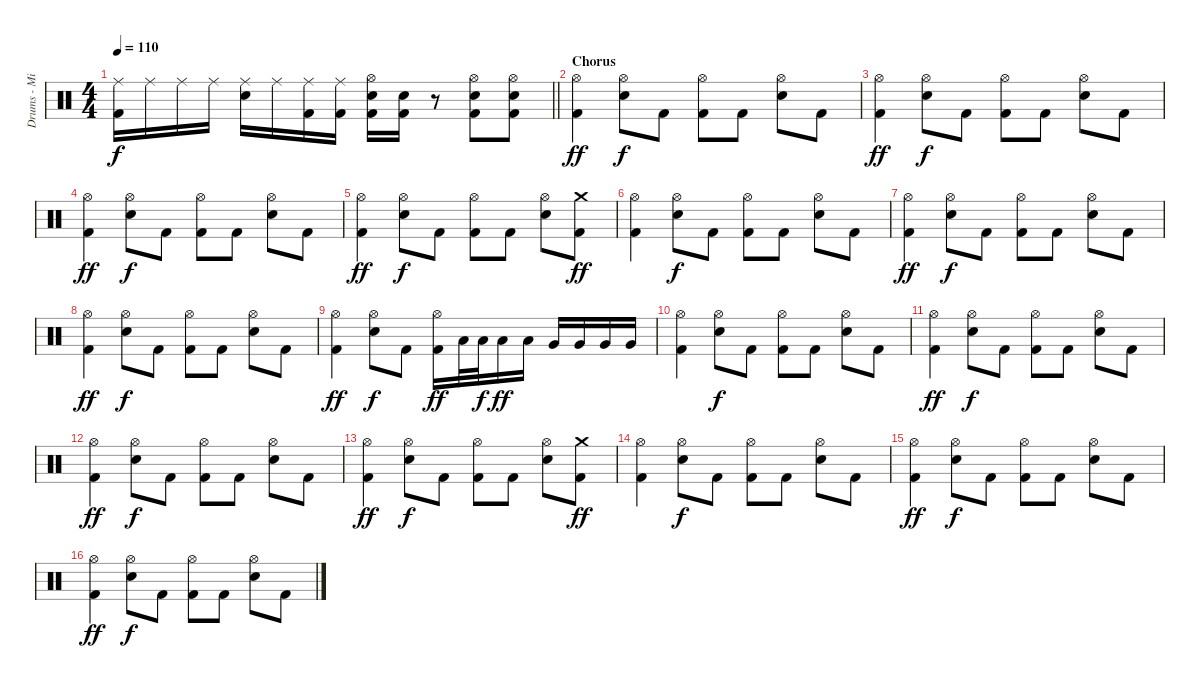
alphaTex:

\track ("Drums - Mikko" "Drums - Mi") {instrument percussion}
\staff {score}
\articulation defaults
\ts (4 4)
\tempo 110
\clef neutral
\barLineRight lightlight
\ks c
("Ride (middle)" "Kick (hit) 2").16{dy f volume 13} "Ride (middle)".16 "Ride (middle)".16 "Ride (middle)".16 ("Ride (middle)" "Snare (hit) 2").16 "Ride (middle)".16 ("Ride (middle)" "Kick (hit) 2").16 ("Ride (middle)" "Kick (hit) 2").16 ("Hi-Hat (open)" "Snare (hit) 2" "Kick (hit) 2").16 ("Snare (hit) 2" "Kick (hit) 2").16 r.8 ("Hi-Hat (open)" "Snare (hit) 2" "Kick (hit) 2").8 ("Hi-Hat (open)" "Snare (hit) 2" "Kick (hit) 2").8 |
\section ("" "Chorus")
("Hi-Hat (open)" "Kick (hit) 2").4{dy ff} ("Hi-Hat (open)" "Snare (hit) 2").8{dy f} "Kick (hit) 2".8 ("Hi-Hat (open)" "Kick (hit) 2").8 "Kick (hit) 2".8 ("Hi-Hat (open)" "Snare (hit) 2").8 "Kick (hit) 2".8 |
("Hi-Hat (open)" "Kick (hit) 2").4{dy ff} ("Hi-Hat (open)" "Snare (hit) 2").8{dy f} "Kick (hit) 2".8 ("Hi-Hat (open)" "Kick (hit) 2").8 "Kick (hit) 2".8 ("Hi-Hat (open)" "Snare (hit) 2").8 "Kick (hit) 2".8 |
("Hi-Hat (open)" "Kick (hit) 2").4{dy ff} ("Hi-Hat (open)" "Snare (hit) 2").8{dy f} "Kick (hit) 2".8 ("Hi-Hat (open)" "Kick (hit) 2").8 "Kick (hit) 2".8 ("Hi-Hat (open)" "Snare (hit) 2").8 "Kick (hit) 2".8 |
("Hi-Hat (open)" "Kick (hit) 2").4{dy ff} ("Hi-Hat (open)" "Snare (hit) 2").8{dy f} "Kick (hit) 2".8 ("Hi-Hat (open)" "Kick (hit) 2").8 "Kick (hit) 2".8 ("Hi-Hat (open)" "Snare (hit) 2").8 ("Crash medium (hit)" "Kick (hit) 2").8{dy ff} |
("Hi-Hat (open)" "Kick (hit) 2").4 ("Hi-Hat (open)" "Snare (hit) 2").8{dy f} "Kick (hit) 2".8 ("Hi-Hat (open)" "Kick (hit) 2").8 "Kick (hit) 2".8 ("Hi-Hat (open)" "Snare (hit) 2").8 "Kick (hit) 2".8 |
("Hi-Hat (open)" "Kick (hit) 2").4{dy ff} ("Hi-Hat (open)" "Snare (hit) 2").8{dy f} "Kick (hit) 2".8 ("Hi-Hat (open)" "Kick (hit) 2").8 "Kick (hit) 2".8 ("Hi-Hat (open)" "Snare (hit) 2").8 "Kick (hit) 2".8 |
("Hi-Hat (open)" "Kick (hit) 2").4{dy ff} ("Hi-Hat (open)" "Snare (hit) 2").8{dy f} "Kick (hit) 2".8 ("Hi-Hat (open)" "Kick (hit) 2").8 "Kick (hit) 2".8 ("Hi-Hat (open)" "Snare (hit) 2").8 "Kick (hit) 2".8 |
("Hi-Hat (open)" "Kick (hit) 2").4{dy ff} ("Hi-Hat (open)" "Snare (hit) 2").8{dy f} "Kick (hit) 2".8 ("Hi-Hat (open)" "Kick (hit) 2").16{dy ff} "Low Tom (hit)".32 "Low Tom (hit)".32{dy f} "Low Tom (hit)".16{dy ff} "Low Tom (hit)".16 "Very Low Tom (hit)".16 "Very Low Tom (hit)".16 "Very Low Tom (hit)".16 "Very Low Tom (hit)".16 |
("Hi-Hat (open)" "Kick (hit) 2").4 ("Hi-Hat (open)" "Snare (hit) 2").8{dy f} "Kick (hit) 2".8 ("Hi-Hat (open)" "Kick (hit) 2").8 "Kick (hit) 2".8 ("Hi-Hat (open)" "Snare (hit) 2").8 "Kick (hit) 2".8 |
("Hi-Hat (open)" "Kick (hit) 2").4{dy ff} ("Hi-Hat (open)" "Snare (hit) 2").8{dy f} "Kick (hit) 2".8 ("Hi-Hat (open)" "Kick (hit) 2").8 "Kick (hit) 2".8 ("Hi-Hat (open)" "Snare (hit) 2").8 "Kick (hit) 2".8 |
("Hi-Hat (open)" "Kick (hit) 2").4{dy ff} ("Hi-Hat (open)" "Snare (hit) 2").8{dy f} "Kick (hit) 2".8 ("Hi-Hat (open)" "Kick (hit) 2").8 "Kick (hit) 2".8 ("Hi-Hat (open)" "Snare (hit) 2").8 "Kick (hit) 2".8 |
("Hi-Hat (open)" "Kick (hit) 2").4{dy ff} ("Hi-Hat (open)" "Snare (hit) 2").8{dy f} "Kick (hit) 2".8 ("Hi-Hat (open)" "Kick (hit) 2").8 "Kick (hit) 2".8 ("Hi-Hat (open)" "Snare (hit) 2").8 ("Crash medium (hit)" "Kick (hit) 2").8{dy ff} |
("Hi-Hat (open)" "Kick (hit) 2").4 ("Hi-Hat (open)" "Snare (hit) 2").8{dy f} "Kick (hit) 2".8 ("Hi-Hat (open)" "Kick (hit) 2").8 "Kick (hit) 2".8 ("Hi-Hat (open)" "Snare (hit) 2").8 "Kick (hit) 2".8 |
("Hi-Hat (open)" "Kick (hit) 2").4{dy ff} ("Hi-Hat (open)" "Snare (hit) 2").8{dy f} "Kick (hit) 2".8 ("Hi-Hat (open)" "Kick (hit) 2").8 "Kick (hit) 2".8 ("Hi-Hat (open)" "Snare (hit) 2").8 "Kick (hit) 2".8 |
("Hi-Hat (open)" "Kick (hit) 2").4{dy ff} ("Hi-Hat (open)" "Snare (hit) 2").8{dy f} "Kick (hit) 2".8 ("Hi-Hat (open)" "Kick (hit) 2").8 "Kick (hit) 2".8 ("Hi-Hat (open)" "Snare (hit) 2").8 "Kick (hit) 2".8
